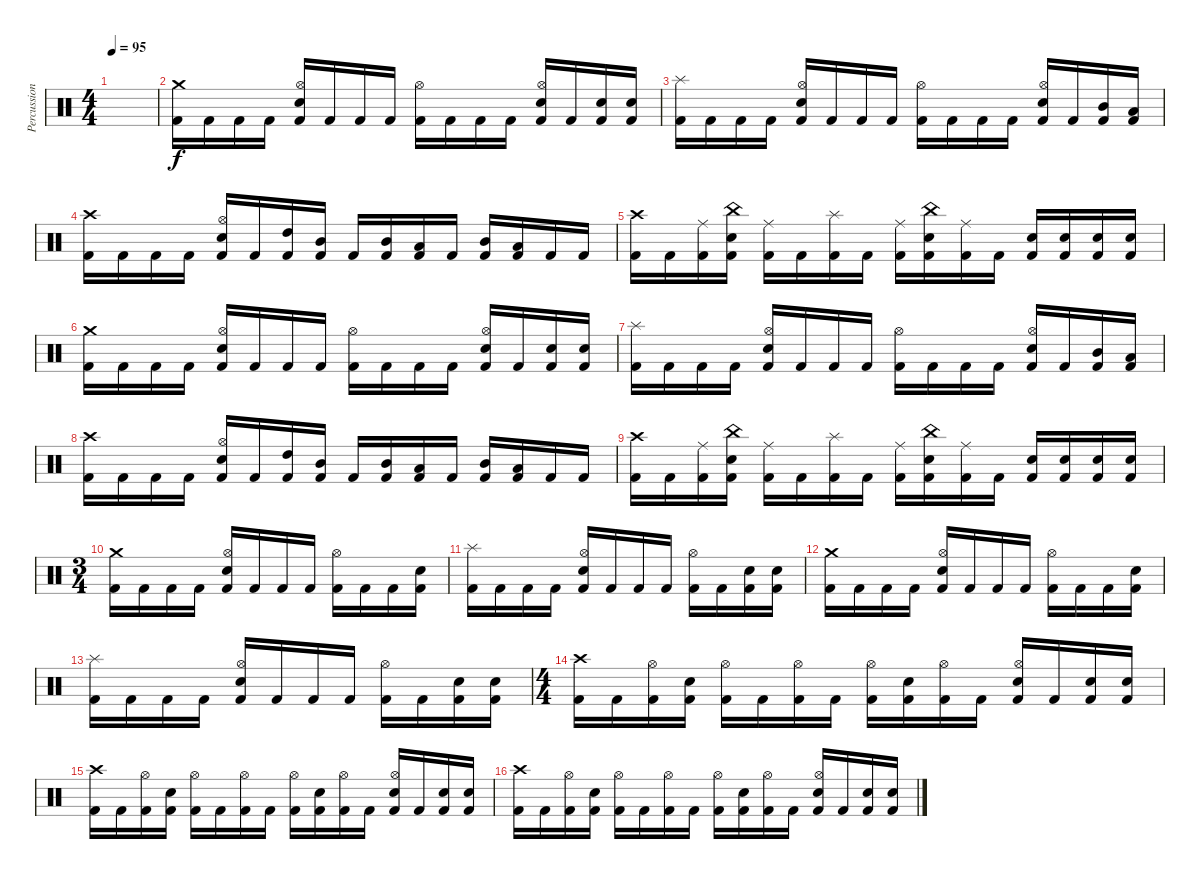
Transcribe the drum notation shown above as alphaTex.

\track ("Percussion" "Percussion") {instrument percussion}
\staff {score}
\articulation defaults
\ts (4 4)
\tempo 95
\clef neutral
\ks c
|
("Crash medium (hit)" "Kick (hit) 2").16 "Kick (hit) 2".16 "Kick (hit) 2".16 "Kick (hit) 2".16 ("Hi-Hat (open)" "Electric Snare (hit)" "Kick (hit) 2").16 "Kick (hit) 2".16 "Kick (hit) 2".16 "Kick (hit) 2".16 ("Hi-Hat (open)" "Kick (hit) 2").16 "Kick (hit) 2".16 "Kick (hit) 2".16 "Kick (hit) 2".16 ("Hi-Hat (open)" "Electric Snare (hit)" "Kick (hit) 2").16 "Kick (hit) 2".16 ("Electric Snare (hit)" "Kick (hit) 2").16 ("Electric Snare (hit)" "Kick (hit) 2").16 |
("Splash (hit)" "Kick (hit) 2").16 "Kick (hit) 2".16 "Kick (hit) 2".16 "Kick (hit) 2".16 ("Hi-Hat (open)" "Electric Snare (hit)" "Kick (hit) 2").16 "Kick (hit) 2".16 "Kick (hit) 2".16 "Kick (hit) 2".16 ("Hi-Hat (open)" "Kick (hit) 2").16 "Kick (hit) 2".16 "Kick (hit) 2".16 "Kick (hit) 2".16 ("Hi-Hat (open)" "Electric Snare (hit)" "Kick (hit) 2").16 "Kick (hit) 2".16 ("Mid Tom (hit)" "Kick (hit) 2").16 ("Low Tom (hit)" "Kick (hit) 2").16 |
("Crash high (hit)" "Kick (hit) 2").16 "Kick (hit) 2".16 "Kick (hit) 2".16 "Kick (hit) 2".16 ("Hi-Hat (open)" "Electric Snare (hit)" "Kick (hit) 2").16 "Kick (hit) 2".16 ("High Tom (hit)" "Kick (hit) 2").16 ("Mid Tom (hit)" "Kick (hit) 2").16 "Kick (hit) 2".16 ("Mid Tom (hit)" "Kick (hit) 2").16 ("Low Tom (hit)" "Kick (hit) 2").16 "Kick (hit) 2".16 ("Mid Tom (hit)" "Kick (hit) 2").16 ("Low Tom (hit)" "Kick (hit) 2").16 "Kick (hit) 2".16 "Kick (hit) 2".16 |
("Crash high (hit)" "Kick (hit) 2").16 "Kick (hit) 2".16 ("Ride (middle)" "Kick (hit) 2").16 ("China (hit)" "Electric Snare (hit)" "Kick (hit) 2").16 ("Ride (middle)" "Kick (hit) 2").16 "Kick (hit) 2".16 ("Splash (hit)" "Kick (hit) 2").16 "Kick (hit) 2".16 ("Ride (middle)" "Kick (hit) 2").16 ("China (hit)" "Electric Snare (hit)" "Kick (hit) 2").16 ("Ride (middle)" "Kick (hit) 2").16 "Kick (hit) 2".16 ("Electric Snare (hit)" "Kick (hit) 2").16 ("Electric Snare (hit)" "Kick (hit) 2").16 ("Electric Snare (hit)" "Kick (hit) 2").16 ("Electric Snare (hit)" "Kick (hit) 2").16 |
("Crash medium (hit)" "Kick (hit) 2").16 "Kick (hit) 2".16 "Kick (hit) 2".16 "Kick (hit) 2".16 ("Hi-Hat (open)" "Electric Snare (hit)" "Kick (hit) 2").16 "Kick (hit) 2".16 "Kick (hit) 2".16 "Kick (hit) 2".16 ("Hi-Hat (open)" "Kick (hit) 2").16 "Kick (hit) 2".16 "Kick (hit) 2".16 "Kick (hit) 2".16 ("Hi-Hat (open)" "Electric Snare (hit)" "Kick (hit) 2").16 "Kick (hit) 2".16 ("Electric Snare (hit)" "Kick (hit) 2").16 ("Electric Snare (hit)" "Kick (hit) 2").16 |
("Splash (hit)" "Kick (hit) 2").16 "Kick (hit) 2".16 "Kick (hit) 2".16 "Kick (hit) 2".16 ("Hi-Hat (open)" "Electric Snare (hit)" "Kick (hit) 2").16 "Kick (hit) 2".16 "Kick (hit) 2".16 "Kick (hit) 2".16 ("Hi-Hat (open)" "Kick (hit) 2").16 "Kick (hit) 2".16 "Kick (hit) 2".16 "Kick (hit) 2".16 ("Hi-Hat (open)" "Electric Snare (hit)" "Kick (hit) 2").16 "Kick (hit) 2".16 ("Mid Tom (hit)" "Kick (hit) 2").16 ("Low Tom (hit)" "Kick (hit) 2").16 |
("Crash high (hit)" "Kick (hit) 2").16 "Kick (hit) 2".16 "Kick (hit) 2".16 "Kick (hit) 2".16 ("Hi-Hat (open)" "Electric Snare (hit)" "Kick (hit) 2").16 "Kick (hit) 2".16 ("High Tom (hit)" "Kick (hit) 2").16 ("Mid Tom (hit)" "Kick (hit) 2").16 "Kick (hit) 2".16 ("Mid Tom (hit)" "Kick (hit) 2").16 ("Low Tom (hit)" "Kick (hit) 2").16 "Kick (hit) 2".16 ("Mid Tom (hit)" "Kick (hit) 2").16 ("Low Tom (hit)" "Kick (hit) 2").16 "Kick (hit) 2".16 "Kick (hit) 2".16 |
("Crash high (hit)" "Kick (hit) 2").16 "Kick (hit) 2".16 ("Ride (middle)" "Kick (hit) 2").16 ("China (hit)" "Electric Snare (hit)" "Kick (hit) 2").16 ("Ride (middle)" "Kick (hit) 2").16 "Kick (hit) 2".16 ("Splash (hit)" "Kick (hit) 2").16 "Kick (hit) 2".16 ("Ride (middle)" "Kick (hit) 2").16 ("China (hit)" "Electric Snare (hit)" "Kick (hit) 2").16 ("Ride (middle)" "Kick (hit) 2").16 "Kick (hit) 2".16 ("Electric Snare (hit)" "Kick (hit) 2").16 ("Electric Snare (hit)" "Kick (hit) 2").16 ("Electric Snare (hit)" "Kick (hit) 2").16 ("Electric Snare (hit)" "Kick (hit) 2").16 |
\ts (3 4)
("Crash medium (hit)" "Kick (hit) 2").16 "Kick (hit) 2".16 "Kick (hit) 2".16 "Kick (hit) 2".16 ("Hi-Hat (open)" "Electric Snare (hit)" "Kick (hit) 2").16 "Kick (hit) 2".16 "Kick (hit) 2".16 "Kick (hit) 2".16 ("Hi-Hat (open)" "Kick (hit) 2").16 "Kick (hit) 2".16 "Kick (hit) 2".16 ("Electric Snare (hit)" "Kick (hit) 2").16 |
("Splash (hit)" "Kick (hit) 2").16 "Kick (hit) 2".16 "Kick (hit) 2".16 "Kick (hit) 2".16 ("Hi-Hat (open)" "Electric Snare (hit)" "Kick (hit) 2").16 "Kick (hit) 2".16 "Kick (hit) 2".16 "Kick (hit) 2".16 ("Hi-Hat (open)" "Kick (hit) 2").16 "Kick (hit) 2".16 ("Electric Snare (hit)" "Kick (hit) 2").16 ("Electric Snare (hit)" "Kick (hit) 2").16 |
("Crash medium (hit)" "Kick (hit) 2").16 "Kick (hit) 2".16 "Kick (hit) 2".16 "Kick (hit) 2".16 ("Hi-Hat (open)" "Electric Snare (hit)" "Kick (hit) 2").16 "Kick (hit) 2".16 "Kick (hit) 2".16 "Kick (hit) 2".16 ("Hi-Hat (open)" "Kick (hit) 2").16 "Kick (hit) 2".16 "Kick (hit) 2".16 ("Electric Snare (hit)" "Kick (hit) 2").16 |
("Splash (hit)" "Kick (hit) 2").16 "Kick (hit) 2".16 "Kick (hit) 2".16 "Kick (hit) 2".16 ("Hi-Hat (open)" "Electric Snare (hit)" "Kick (hit) 2").16 "Kick (hit) 2".16 "Kick (hit) 2".16 "Kick (hit) 2".16 ("Hi-Hat (open)" "Kick (hit) 2").16 "Kick (hit) 2".16 ("Electric Snare (hit)" "Kick (hit) 2").16 ("Electric Snare (hit)" "Kick (hit) 2").16 |
\ts (4 4)
("Crash high (hit)" "Kick (hit) 2").16 "Kick (hit) 2".16 ("Hi-Hat (open)" "Kick (hit) 2").16 ("Electric Snare (hit)" "Kick (hit) 2").16 ("Hi-Hat (open)" "Kick (hit) 2").16 "Kick (hit) 2".16 ("Hi-Hat (open)" "Kick (hit) 2").16 "Kick (hit) 2".16 ("Hi-Hat (open)" "Kick (hit) 2").16 ("Electric Snare (hit)" "Kick (hit) 2").16 ("Hi-Hat (open)" "Kick (hit) 2").16 "Kick (hit) 2".16 ("Hi-Hat (open)" "Electric Snare (hit)" "Kick (hit) 2").16 "Kick (hit) 2".16 ("Electric Snare (hit)" "Kick (hit) 2").16 ("Electric Snare (hit)" "Kick (hit) 2").16 |
("Crash high (hit)" "Kick (hit) 2").16 "Kick (hit) 2".16 ("Hi-Hat (open)" "Kick (hit) 2").16 ("Electric Snare (hit)" "Kick (hit) 2").16 ("Hi-Hat (open)" "Kick (hit) 2").16 "Kick (hit) 2".16 ("Hi-Hat (open)" "Kick (hit) 2").16 "Kick (hit) 2".16 ("Hi-Hat (open)" "Kick (hit) 2").16 ("Electric Snare (hit)" "Kick (hit) 2").16 ("Hi-Hat (open)" "Kick (hit) 2").16 "Kick (hit) 2".16 ("Hi-Hat (open)" "Electric Snare (hit)" "Kick (hit) 2").16 "Kick (hit) 2".16 ("Electric Snare (hit)" "Kick (hit) 2").16 ("Electric Snare (hit)" "Kick (hit) 2").16 |
("Crash high (hit)" "Kick (hit) 2").16 "Kick (hit) 2".16 ("Hi-Hat (open)" "Kick (hit) 2").16 ("Electric Snare (hit)" "Kick (hit) 2").16 ("Hi-Hat (open)" "Kick (hit) 2").16 "Kick (hit) 2".16 ("Hi-Hat (open)" "Kick (hit) 2").16 "Kick (hit) 2".16 ("Hi-Hat (open)" "Kick (hit) 2").16 ("Electric Snare (hit)" "Kick (hit) 2").16 ("Hi-Hat (open)" "Kick (hit) 2").16 "Kick (hit) 2".16 ("Hi-Hat (open)" "Electric Snare (hit)" "Kick (hit) 2").16 "Kick (hit) 2".16 ("Electric Snare (hit)" "Kick (hit) 2").16 ("Electric Snare (hit)" "Kick (hit) 2").16
